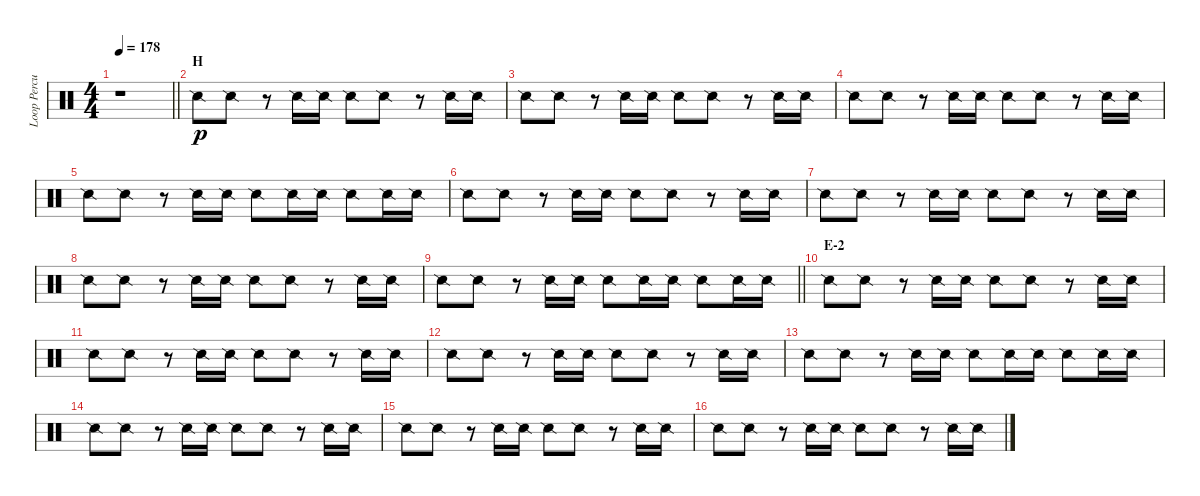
\track ("Loop Percussion" "Loop Percu") {instrument percussion}
\staff {score}
\articulation defaults
\ts (4 4)
\tempo 178
\clef neutral
\barLineRight lightlight
\ks c
r.1{dy p} |
\section ("" "H")
"Snare (side stick) 2".8 "Snare (side stick) 2".8 r.8 "Snare (side stick) 2".16 "Snare (side stick) 2".16 "Snare (side stick) 2".8 "Snare (side stick) 2".8 r.8 "Snare (side stick) 2".16 "Snare (side stick) 2".16 |
"Snare (side stick) 2".8 "Snare (side stick) 2".8 r.8 "Snare (side stick) 2".16 "Snare (side stick) 2".16 "Snare (side stick) 2".8 "Snare (side stick) 2".8 r.8 "Snare (side stick) 2".16 "Snare (side stick) 2".16 |
"Snare (side stick) 2".8 "Snare (side stick) 2".8 r.8 "Snare (side stick) 2".16 "Snare (side stick) 2".16 "Snare (side stick) 2".8 "Snare (side stick) 2".8 r.8 "Snare (side stick) 2".16 "Snare (side stick) 2".16 |
"Snare (side stick) 2".8 "Snare (side stick) 2".8 r.8 "Snare (side stick) 2".16 "Snare (side stick) 2".16 "Snare (side stick) 2".8 "Snare (side stick) 2".16 "Snare (side stick) 2".16 "Snare (side stick) 2".8 "Snare (side stick) 2".16 "Snare (side stick) 2".16 |
"Snare (side stick) 2".8 "Snare (side stick) 2".8 r.8 "Snare (side stick) 2".16 "Snare (side stick) 2".16 "Snare (side stick) 2".8 "Snare (side stick) 2".8 r.8 "Snare (side stick) 2".16 "Snare (side stick) 2".16 |
"Snare (side stick) 2".8 "Snare (side stick) 2".8 r.8 "Snare (side stick) 2".16 "Snare (side stick) 2".16 "Snare (side stick) 2".8 "Snare (side stick) 2".8 r.8 "Snare (side stick) 2".16 "Snare (side stick) 2".16 |
"Snare (side stick) 2".8 "Snare (side stick) 2".8 r.8 "Snare (side stick) 2".16 "Snare (side stick) 2".16 "Snare (side stick) 2".8 "Snare (side stick) 2".8 r.8 "Snare (side stick) 2".16 "Snare (side stick) 2".16 |
\barLineRight lightlight "Snare (side stick) 2".8 "Snare (side stick) 2".8
r.8 "Snare (side stick) 2".16 "Snare (side stick) 2".16 "Snare (side stick) 2".8 "Snare (side stick) 2".16 "Snare (side stick) 2".16 "Snare (side stick) 2".8 "Snare (side stick) 2".16 "Snare (side stick) 2".16 |
\section ("" "E-2")
"Snare (side stick) 2".8 "Snare (side stick) 2".8 r.8 "Snare (side stick) 2".16 "Snare (side stick) 2".16 "Snare (side stick) 2".8 "Snare (side stick) 2".8 r.8 "Snare (side stick) 2".16 "Snare (side stick) 2".16 |
"Snare (side stick) 2".8 "Snare (side stick) 2".8 r.8 "Snare (side stick) 2".16 "Snare (side stick) 2".16 "Snare (side stick) 2".8 "Snare (side stick) 2".8 r.8 "Snare (side stick) 2".16 "Snare (side stick) 2".16 |
"Snare (side stick) 2".8 "Snare (side stick) 2".8 r.8 "Snare (side stick) 2".16 "Snare (side stick) 2".16 "Snare (side stick) 2".8 "Snare (side stick) 2".8 r.8 "Snare (side stick) 2".16 "Snare (side stick) 2".16 |
"Snare (side stick) 2".8 "Snare (side stick) 2".8 r.8 "Snare (side stick) 2".16 "Snare (side stick) 2".16 "Snare (side stick) 2".8 "Snare (side stick) 2".16 "Snare (side stick) 2".16 "Snare (side stick) 2".8 "Snare (side stick) 2".16 "Snare (side stick) 2".16 |
"Snare (side stick) 2".8 "Snare (side stick) 2".8 r.8 "Snare (side stick) 2".16 "Snare (side stick) 2".16 "Snare (side stick) 2".8 "Snare (side stick) 2".8 r.8 "Snare (side stick) 2".16 "Snare (side stick) 2".16 |
"Snare (side stick) 2".8 "Snare (side stick) 2".8 r.8 "Snare (side stick) 2".16 "Snare (side stick) 2".16 "Snare (side stick) 2".8 "Snare (side stick) 2".8 r.8 "Snare (side stick) 2".16 "Snare (side stick) 2".16 |
"Snare (side stick) 2".8 "Snare (side stick) 2".8 r.8 "Snare (side stick) 2".16 "Snare (side stick) 2".16 "Snare (side stick) 2".8 "Snare (side stick) 2".8 r.8 "Snare (side stick) 2".16 "Snare (side stick) 2".16
